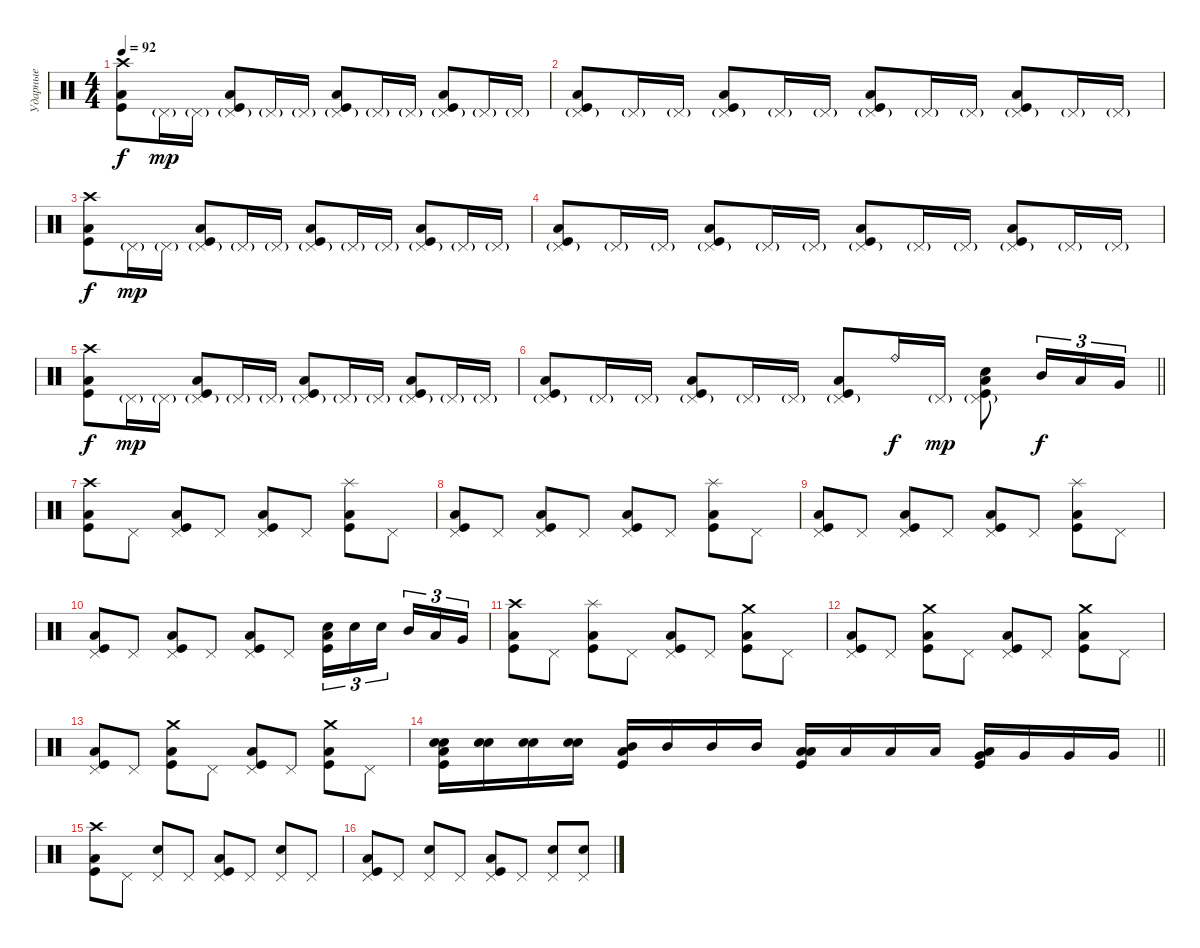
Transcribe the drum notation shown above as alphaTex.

\track ("Ударные" "Ударные") {instrument percussion}
\staff {score}
\articulation defaults
\ts (4 4)
\tempo 92
\clef neutral
\ks c
("Crash high (hit)" "Low Tom (hit)" "Kick (hit)").8{dy f} "Pedal Hi-Hat (hit)"{g}.16{dy mp} "Pedal Hi-Hat (hit)"{g}.16 ("Pedal Hi-Hat (hit)"{g} "Low Tom (hit)" "Kick (hit)").8 "Pedal Hi-Hat (hit)"{g}.16 "Pedal Hi-Hat (hit)"{g}.16 ("Pedal Hi-Hat (hit)"{g} "Low Tom (hit)" "Kick (hit)").8 "Pedal Hi-Hat (hit)"{g}.16 "Pedal Hi-Hat (hit)"{g}.16 ("Pedal Hi-Hat (hit)"{g} "Low Tom (hit)" "Kick (hit)").8 "Pedal Hi-Hat (hit)"{g}.16 "Pedal Hi-Hat (hit)"{g}.16 |
("Pedal Hi-Hat (hit)"{g} "Low Tom (hit)" "Kick (hit)").8 "Pedal Hi-Hat (hit)"{g}.16 "Pedal Hi-Hat (hit)"{g}.16 ("Pedal Hi-Hat (hit)"{g} "Low Tom (hit)" "Kick (hit)").8 "Pedal Hi-Hat (hit)"{g}.16 "Pedal Hi-Hat (hit)"{g}.16 ("Pedal Hi-Hat (hit)"{g} "Low Tom (hit)" "Kick (hit)").8 "Pedal Hi-Hat (hit)"{g}.16 "Pedal Hi-Hat (hit)"{g}.16 ("Pedal Hi-Hat (hit)"{g} "Low Tom (hit)" "Kick (hit)").8 "Pedal Hi-Hat (hit)"{g}.16 "Pedal Hi-Hat (hit)"{g}.16 |
("Crash high (hit)" "Low Tom (hit)" "Kick (hit)").8{dy f} "Pedal Hi-Hat (hit)"{g}.16{dy mp} "Pedal Hi-Hat (hit)"{g}.16 ("Pedal Hi-Hat (hit)"{g} "Low Tom (hit)" "Kick (hit)").8 "Pedal Hi-Hat (hit)"{g}.16 "Pedal Hi-Hat (hit)"{g}.16 ("Pedal Hi-Hat (hit)"{g} "Low Tom (hit)" "Kick (hit)").8 "Pedal Hi-Hat (hit)"{g}.16 "Pedal Hi-Hat (hit)"{g}.16 ("Pedal Hi-Hat (hit)"{g} "Low Tom (hit)" "Kick (hit)").8 "Pedal Hi-Hat (hit)"{g}.16 "Pedal Hi-Hat (hit)"{g}.16 |
("Pedal Hi-Hat (hit)"{g} "Low Tom (hit)" "Kick (hit)").8 "Pedal Hi-Hat (hit)"{g}.16 "Pedal Hi-Hat (hit)"{g}.16 ("Pedal Hi-Hat (hit)"{g} "Low Tom (hit)" "Kick (hit)").8 "Pedal Hi-Hat (hit)"{g}.16 "Pedal Hi-Hat (hit)"{g}.16 ("Pedal Hi-Hat (hit)"{g} "Low Tom (hit)" "Kick (hit)").8 "Pedal Hi-Hat (hit)"{g}.16 "Pedal Hi-Hat (hit)"{g}.16 ("Pedal Hi-Hat (hit)"{g} "Low Tom (hit)" "Kick (hit)").8 "Pedal Hi-Hat (hit)"{g}.16 "Pedal Hi-Hat (hit)"{g}.16 |
("Crash high (hit)" "Low Tom (hit)" "Kick (hit)").8{dy f} "Pedal Hi-Hat (hit)"{g}.16{dy mp} "Pedal Hi-Hat (hit)"{g}.16 ("Pedal Hi-Hat (hit)"{g} "Low Tom (hit)" "Kick (hit)").8 "Pedal Hi-Hat (hit)"{g}.16 "Pedal Hi-Hat (hit)"{g}.16 ("Pedal Hi-Hat (hit)"{g} "Low Tom (hit)" "Kick (hit)").8 "Pedal Hi-Hat (hit)"{g}.16 "Pedal Hi-Hat (hit)"{g}.16 ("Pedal Hi-Hat (hit)"{g} "Low Tom (hit)" "Kick (hit)").8 "Pedal Hi-Hat (hit)"{g}.16 "Pedal Hi-Hat (hit)"{g}.16 |
\barLineRight lightlight
("Pedal Hi-Hat (hit)"{g} "Low Tom (hit)" "Kick (hit)").8 "Pedal Hi-Hat (hit)"{g}.16 "Pedal Hi-Hat (hit)"{g}.16 ("Pedal Hi-Hat (hit)"{g} "Low Tom (hit)" "Kick (hit)").8 "Pedal Hi-Hat (hit)"{g}.16 "Pedal Hi-Hat (hit)"{g}.16 ("Pedal Hi-Hat (hit)"{g} "Low Tom (hit)" "Kick (hit)").8 "Ride (bell)".16{dy f} "Pedal Hi-Hat (hit)"{g}.16{dy mp} ("Pedal Hi-Hat (hit)"{g} "Snare (hit) 2" "Low Tom (hit)" "Kick (hit)").8 "Mid Tom (hit)".16{tu (3 2) dy f} "Low Tom (hit)".16{tu (3 2)} "Very Low Tom (hit)".16{tu (3 2)} |
("Crash high (hit)" "Low Tom (hit)" "Kick (hit)").8 "Pedal Hi-Hat (hit)".8 ("Pedal Hi-Hat (hit)" "Low Tom (hit)" "Kick (hit)").8 "Pedal Hi-Hat (hit)".8 ("Pedal Hi-Hat (hit)" "Low Tom (hit)" "Kick (hit)").8 "Pedal Hi-Hat (hit)".8 ("Splash (hit)" "Low Tom (hit)" "Kick (hit)").8 "Pedal Hi-Hat (hit)".8 |
("Pedal Hi-Hat (hit)" "Low Tom (hit)" "Kick (hit)").8 "Pedal Hi-Hat (hit)".8 ("Pedal Hi-Hat (hit)" "Low Tom (hit)" "Kick (hit)").8 "Pedal Hi-Hat (hit)".8 ("Pedal Hi-Hat (hit)" "Low Tom (hit)" "Kick (hit)").8 "Pedal Hi-Hat (hit)".8 ("Splash (hit)" "Low Tom (hit)" "Kick (hit)").8 "Pedal Hi-Hat (hit)".8 |
("Pedal Hi-Hat (hit)" "Low Tom (hit)" "Kick (hit)").8 "Pedal Hi-Hat (hit)".8 ("Pedal Hi-Hat (hit)" "Low Tom (hit)" "Kick (hit)").8 "Pedal Hi-Hat (hit)".8 ("Pedal Hi-Hat (hit)" "Low Tom (hit)" "Kick (hit)").8 "Pedal Hi-Hat (hit)".8 ("Splash (hit)" "Low Tom (hit)" "Kick (hit)").8 "Pedal Hi-Hat (hit)".8 |
("Pedal Hi-Hat (hit)" "Low Tom (hit)" "Kick (hit)").8 "Pedal Hi-Hat (hit)".8 ("Pedal Hi-Hat (hit)" "Low Tom (hit)" "Kick (hit)").8 "Pedal Hi-Hat (hit)".8 ("Pedal Hi-Hat (hit)" "Low Tom (hit)" "Kick (hit)").8 "Pedal Hi-Hat (hit)".8 ("Snare (hit) 2" "Low Tom (hit)" "Kick (hit)").16{tu (3 2)} "Snare (hit) 2".16{tu (3 2)} "Snare (hit) 2".16{tu (3 2) beam splitsecondary} "Mid Tom (hit)".16{tu (3 2)} "Low Tom (hit)".16{tu (3 2)} "Very Low Tom (hit)".16{tu (3 2)} |
("Crash high (hit)" "Low Tom (hit)" "Kick (hit)").8 "Pedal Hi-Hat (hit)".8 ("Splash (hit)" "Low Tom (hit)" "Kick (hit)").8 "Pedal Hi-Hat (hit)".8 ("Pedal Hi-Hat (hit)" "Low Tom (hit)" "Kick (hit)").8 "Pedal Hi-Hat (hit)".8 ("Crash medium (hit)" "Low Tom (hit)" "Kick (hit)").8 "Pedal Hi-Hat (hit)".8 |
("Pedal Hi-Hat (hit)" "Low Tom (hit)" "Kick (hit)").8 "Pedal Hi-Hat (hit)".8 ("Crash medium (hit)" "Low Tom (hit)" "Kick (hit)").8 "Pedal Hi-Hat (hit)".8 ("Pedal Hi-Hat (hit)" "Low Tom (hit)" "Kick (hit)").8 "Pedal Hi-Hat (hit)".8 ("Crash medium (hit)" "Low Tom (hit)" "Kick (hit)").8 "Pedal Hi-Hat (hit)".8 |
("Pedal Hi-Hat (hit)" "Low Tom (hit)" "Kick (hit)").8 "Pedal Hi-Hat (hit)".8 ("Crash medium (hit)" "Low Tom (hit)" "Kick (hit)").8 "Pedal Hi-Hat (hit)".8 ("Pedal Hi-Hat (hit)" "Low Tom (hit)" "Kick (hit)").8 "Pedal Hi-Hat (hit)".8 ("Crash medium (hit)" "Low Tom (hit)" "Kick (hit)").8 "Pedal Hi-Hat (hit)".8 |
\barLineRight lightlight
("Snare (hit) 2" "Electric Snare (hit)" "Low Tom (hit)" "Kick (hit)").16 ("Snare (hit) 2" "Electric Snare (hit)").16 ("Snare (hit) 2" "Electric Snare (hit)").16 ("Snare (hit) 2" "Electric Snare (hit)").16 ("Mid Tom (hit)" "Low Tom (hit)" "Kick (hit)").16 "Mid Tom (hit)".16 "Mid Tom (hit)".16 "Mid Tom (hit)".16 ("Low Tom (hit)" "Low Tom (hit)" "Kick (hit)").16 "Low Tom (hit)".16 "Low Tom (hit)".16 "Low Tom (hit)".16 ("Very Low Tom (hit)" "Low Tom (hit)" "Kick (hit)").16 "Very Low Tom (hit)".16 "Very Low Tom (hit)".16 "Very Low Tom (hit)".16 |
("Crash high (hit)" "Low Tom (hit)" "Kick (hit)").8 "Pedal Hi-Hat (hit)".8 ("Pedal Hi-Hat (hit)" "Electric Snare (hit)").8 "Pedal Hi-Hat (hit)".8 ("Pedal Hi-Hat (hit)" "Low Tom (hit)" "Kick (hit)").8 "Pedal Hi-Hat (hit)".8 ("Pedal Hi-Hat (hit)" "Electric Snare (hit)").8 "Pedal Hi-Hat (hit)".8 |
("Pedal Hi-Hat (hit)" "Low Tom (hit)" "Kick (hit)").8 "Pedal Hi-Hat (hit)".8 ("Pedal Hi-Hat (hit)" "Electric Snare (hit)").8 "Pedal Hi-Hat (hit)".8 ("Pedal Hi-Hat (hit)" "Low Tom (hit)" "Kick (hit)").8 "Pedal Hi-Hat (hit)".8 ("Pedal Hi-Hat (hit)" "Electric Snare (hit)").8 ("Pedal Hi-Hat (hit)" "Electric Snare (hit)").8
